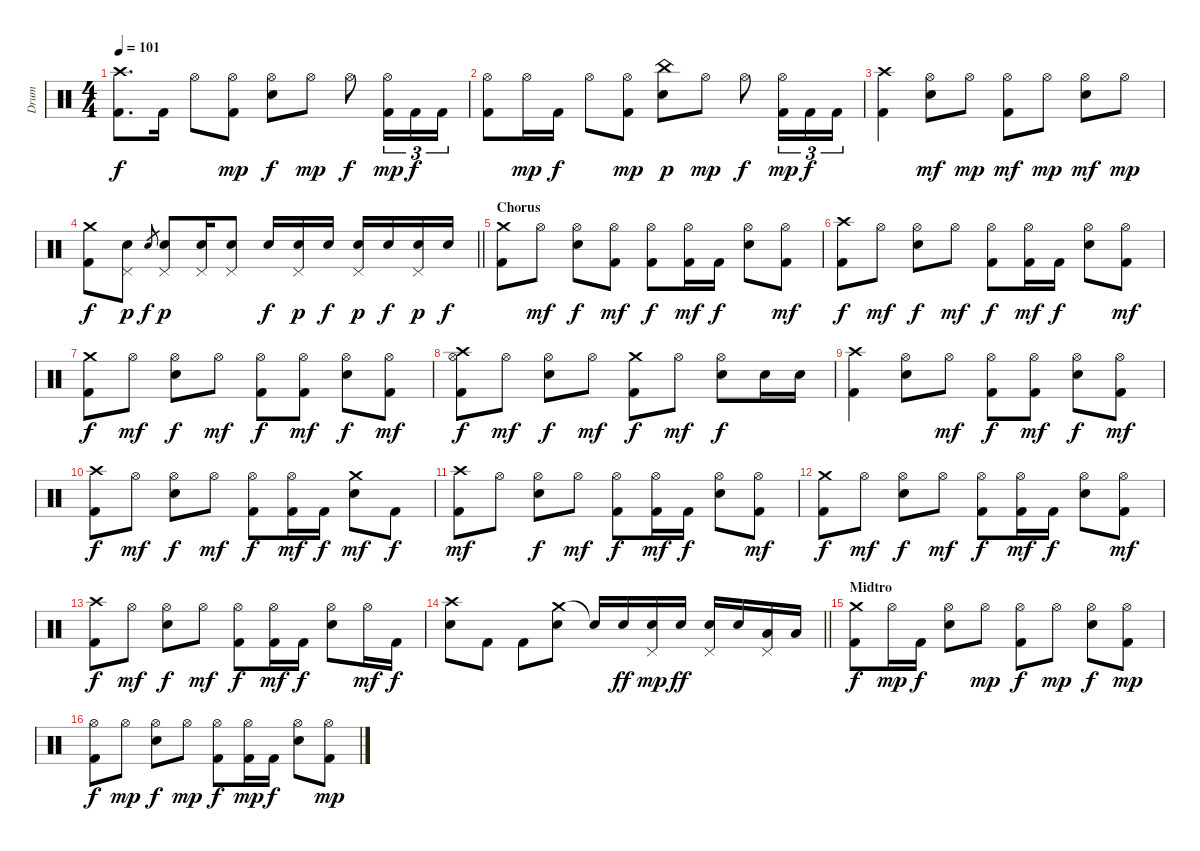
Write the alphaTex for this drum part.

\track ("Drum" "Drum") {instrument percussion}
\staff {score}
\articulation defaults
\ts (4 4)
\tempo 101
\clef neutral
\ks c
("Crash high (hit)" "Kick (hit) 2").8{d dy f} "Kick (hit) 2".16 "Hi-Hat (open)".8 ("Hi-Hat (open)" "Kick (hit) 2").8{dy mp} ("Hi-Hat (open)" "Snare (hit) 2").8{dy f} "Hi-Hat (open)".8{dy mp} "Hi-Hat (open)".8{dy f} ("Hi-Hat (open)" "Kick (hit) 2").16{tu (3 2) dy mp} "Kick (hit) 2".16{tu (3 2) dy f} "Kick (hit) 2".16{tu (3 2)} |
("Hi-Hat (open)" "Kick (hit) 2").8 "Hi-Hat (open)".16{dy mp} "Kick (hit) 2".16{dy f} "Hi-Hat (open)".8 ("Hi-Hat (open)" "Kick (hit) 2").8{dy mp} ("China (hit)" "Snare (hit) 2").8{dy p} "Hi-Hat (open)".8{dy mp} "Hi-Hat (open)".8{dy f} ("Hi-Hat (open)" "Kick (hit) 2").16{tu (3 2) dy mp} "Kick (hit) 2".16{tu (3 2) dy f} "Kick (hit) 2".16{tu (3 2)} |
("Crash high (hit)" "Kick (hit) 2").4 ("Hi-Hat (open)" "Snare (hit) 2").8{dy mf} "Hi-Hat (open)".8{dy mp} ("Hi-Hat (open)" "Kick (hit) 2").8{dy mf} "Hi-Hat (open)".8{dy mp} ("Hi-Hat (open)" "Snare (hit) 2").8{dy mf} "Hi-Hat (open)".8{dy mp} |
\barLineRight lightlight
("Crash medium (hit)" "Kick (hit) 2").8{dy f} ("Snare (hit) 2" "Pedal Hi-Hat (hit)").8{dy p} "Snare (hit) 2".8{gr dy f} ("Snare (hit) 2" "Pedal Hi-Hat (hit)").8{dy p} ("Snare (hit) 2" "Pedal Hi-Hat (hit)").16 ("Snare (hit) 2" "Pedal Hi-Hat (hit)").8 "Snare (hit) 2".16{dy f} ("Snare (hit) 2" "Pedal Hi-Hat (hit)").16{dy p} "Snare (hit) 2".16{dy f} ("Snare (hit) 2" "Pedal Hi-Hat (hit)").16{dy p} "Snare (hit) 2".16{dy f} ("Snare (hit) 2" "Pedal Hi-Hat (hit)").16{dy p} "Snare (hit) 2".16{dy f} |
\section ("" "Chorus")
("Crash medium (hit)" "Kick (hit) 2").8 "Hi-Hat (open)".8{dy mf} ("Hi-Hat (open)" "Snare (hit) 2").8{dy f} ("Hi-Hat (open)" "Kick (hit) 2").8{dy mf} ("Hi-Hat (open)" "Kick (hit) 2").8{dy f} ("Hi-Hat (open)" "Kick (hit) 2").16{dy mf} "Kick (hit) 2".16{dy f} ("Hi-Hat (open)" "Snare (hit) 2").8 ("Hi-Hat (open)" "Kick (hit) 2").8{dy mf} |
("Crash high (hit)" "Kick (hit) 2").8{dy f} "Hi-Hat (open)".8{dy mf} ("Hi-Hat (open)" "Snare (hit) 2").8{dy f} "Hi-Hat (open)".8{dy mf} ("Hi-Hat (open)" "Kick (hit) 2").8{dy f} ("Hi-Hat (open)" "Kick (hit) 2").16{dy mf} "Kick (hit) 2".16{dy f} ("Hi-Hat (open)" "Snare (hit) 2").8 ("Hi-Hat (open)" "Kick (hit) 2").8{dy mf} |
("Crash medium (hit)" "Kick (hit) 2").8{dy f} "Hi-Hat (open)".8{dy mf} ("Hi-Hat (open)" "Snare (hit) 2").8{dy f} "Hi-Hat (open)".8{dy mf} ("Hi-Hat (open)" "Kick (hit) 2").8{dy f} ("Hi-Hat (open)" "Kick (hit) 2").8{dy mf} ("Hi-Hat (open)" "Snare (hit) 2").8{dy f} ("Hi-Hat (open)" "Kick (hit) 2").8{dy mf} |
("Crash high (hit)" "Hi-Hat (open)" "Kick (hit) 2").8{dy f} "Hi-Hat (open)".8{dy mf} ("Hi-Hat (open)" "Snare (hit) 2").8{dy f} "Hi-Hat (open)".8{dy mf} ("Crash medium (hit)" "Kick (hit) 2").8{dy f} "Hi-Hat (open)".8{dy mf} ("Hi-Hat (open)" "Snare (hit) 2").8{dy f} "Snare (hit) 2".16 "Snare (hit) 2".16 |
("Crash high (hit)" "Kick (hit) 2").4 ("Hi-Hat (open)" "Snare (hit) 2").8 "Hi-Hat (open)".8{dy mf} ("Hi-Hat (open)" "Kick (hit) 2").8{dy f} ("Hi-Hat (open)" "Kick (hit) 2").8{dy mf} ("Hi-Hat (open)" "Snare (hit) 2").8{dy f} ("Hi-Hat (open)" "Kick (hit) 2").8{dy mf} |
("Crash high (hit)" "Kick (hit) 2").8{dy f} "Hi-Hat (open)".8{dy mf} ("Hi-Hat (open)" "Snare (hit) 2").8{dy f} "Hi-Hat (open)".8{dy mf} ("Hi-Hat (open)" "Kick (hit) 2").8{dy f} ("Hi-Hat (open)" "Kick (hit) 2").16{dy mf} "Kick (hit) 2".16{dy f} ("Crash medium (hit)" "Snare (hit) 2").8{dy mf} "Kick (hit) 2".8{dy f} |
("Crash high (hit)" "Kick (hit) 2").8{dy mf} "Hi-Hat (open)".8 ("Hi-Hat (open)" "Snare (hit) 2").8{dy f} "Hi-Hat (open)".8{dy mf} ("Hi-Hat (open)" "Kick (hit) 2").8{dy f} ("Hi-Hat (open)" "Kick (hit) 2").16{dy mf} "Kick (hit) 2".16{dy f} ("Hi-Hat (open)" "Snare (hit) 2").8 ("Hi-Hat (open)" "Kick (hit) 2").8{dy mf} |
("Crash medium (hit)" "Kick (hit) 2").8{dy f} "Hi-Hat (open)".8{dy mf} ("Hi-Hat (open)" "Snare (hit) 2").8{dy f} "Hi-Hat (open)".8{dy mf} ("Hi-Hat (open)" "Kick (hit) 2").8{dy f} ("Hi-Hat (open)" "Kick (hit) 2").16{dy mf} "Kick (hit) 2".16{dy f} ("Hi-Hat (open)" "Snare (hit) 2").8 ("Hi-Hat (open)" "Kick (hit) 2").8{dy mf} |
("Crash high (hit)" "Kick (hit) 2").8{dy f} "Hi-Hat (open)".8{dy mf} ("Hi-Hat (open)" "Snare (hit) 2").8{dy f} "Hi-Hat (open)".8{dy mf} ("Hi-Hat (open)" "Kick (hit) 2").8{dy f} ("Hi-Hat (open)" "Kick (hit) 2").16{dy mf} "Kick (hit) 2".16{dy f} ("Hi-Hat (open)" "Snare (hit) 2").8 "Hi-Hat (open)".16{dy mf} "Kick (hit) 2".16{dy f} |
\barLineRight lightlight
("Crash high (hit)" "Snare (hit) 2").8 "Kick (hit) 2".8 "Kick (hit) 2".8 ("Crash medium (hit)" "Snare (hit) 2").8 "Snare (hit)"{t}.16 "Snare (hit) 2".16{dy ff} ("Snare (hit) 2" "Pedal Hi-Hat (hit)").16{dy mp} "Snare (hit) 2".16{dy ff} ("Snare (hit) 2" "Pedal Hi-Hat (hit)").16 "Snare (hit) 2".16 ("Low Tom (hit)" "Pedal Hi-Hat (hit)").16 "Low Tom (hit)".16 |
\section ("" "Midtro")
("Crash medium (hit)" "Kick (hit) 2").8{dy f} "Hi-Hat (open)".16{dy mp} "Kick (hit) 2".16{dy f} ("Hi-Hat (open)" "Snare (hit) 2").8 "Hi-Hat (open)".8{dy mp} ("Hi-Hat (open)" "Kick (hit) 2").8{dy f} "Hi-Hat (open)".8{dy mp} ("Hi-Hat (open)" "Snare (hit) 2").8{dy f} ("Hi-Hat (open)" "Kick (hit) 2").8{dy mp} |
("Hi-Hat (open)" "Kick (hit) 2").8{dy f} "Hi-Hat (open)".8{dy mp} ("Hi-Hat (open)" "Snare (hit) 2").8{dy f} "Hi-Hat (open)".8{dy mp} ("Hi-Hat (open)" "Kick (hit) 2").8{dy f} ("Hi-Hat (open)" "Kick (hit) 2").16{dy mp} "Kick (hit) 2".16{dy f} ("Hi-Hat (open)" "Snare (hit) 2").8 ("Hi-Hat (open)" "Kick (hit) 2").8{dy mp}
